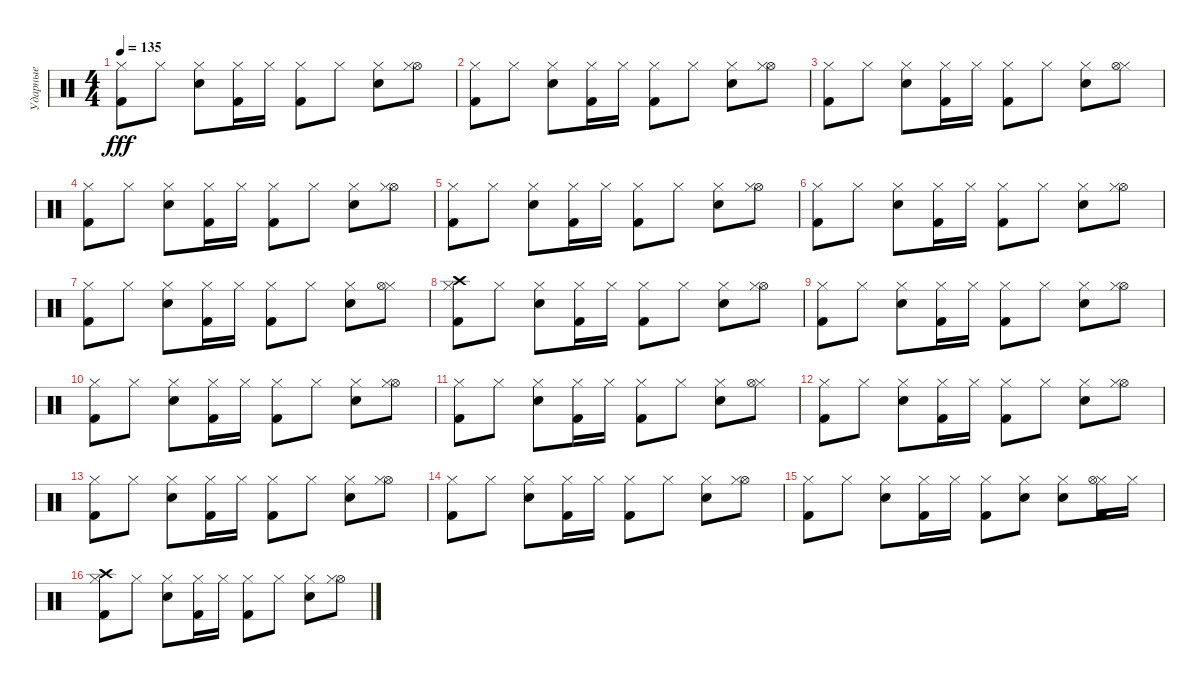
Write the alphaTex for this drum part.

\track ("Ударные" "Ударные") {instrument percussion}
\staff {score}
\articulation defaults
\ts (4 4)
\tempo 135
\clef neutral
\ks c
("Hi-Hat (closed)" "Kick (hit) 2").8{dy fff} "Hi-Hat (closed)".8 ("Hi-Hat (closed)" "Snare (hit) 2").8 ("Kick (hit) 2" "Hi-Hat (closed)").16 "Hi-Hat (closed)".16 ("Hi-Hat (closed)" "Kick (hit) 2").8 "Hi-Hat (closed)".8 ("Hi-Hat (closed)" "Snare (hit) 2").8 ("Hi-Hat (open)" "Hi-Hat (closed)").8 |
("Hi-Hat (closed)" "Kick (hit) 2").8 "Hi-Hat (closed)".8 ("Snare (hit) 2" "Hi-Hat (closed)").8 ("Hi-Hat (closed)" "Kick (hit) 2").16 "Hi-Hat (closed)".16 ("Hi-Hat (closed)" "Kick (hit) 2").8 "Hi-Hat (closed)".8 ("Hi-Hat (closed)" "Snare (hit) 2").8 ("Hi-Hat (open)" "Hi-Hat (closed)").8 |
("Hi-Hat (closed)" "Kick (hit) 2").8 "Hi-Hat (closed)".8 ("Hi-Hat (closed)" "Snare (hit) 2").8 ("Kick (hit) 2" "Hi-Hat (closed)").16 "Hi-Hat (closed)".16 ("Hi-Hat (closed)" "Kick (hit) 2").8 "Hi-Hat (closed)".8 ("Snare (hit) 2" "Hi-Hat (closed)").8 ("Hi-Hat (closed)" "Hi-Hat (open)").8 |
("Hi-Hat (closed)" "Kick (hit) 2").8 "Hi-Hat (closed)".8 ("Hi-Hat (closed)" "Snare (hit) 2").8 ("Hi-Hat (closed)" "Kick (hit) 2").16 "Hi-Hat (closed)".16 ("Hi-Hat (closed)" "Kick (hit) 2").8 "Hi-Hat (closed)".8 ("Snare (hit) 2" "Hi-Hat (closed)").8 ("Hi-Hat (open)" "Hi-Hat (closed)").8 |
("Hi-Hat (closed)" "Kick (hit) 2").8 "Hi-Hat (closed)".8 ("Hi-Hat (closed)" "Snare (hit) 2").8 ("Kick (hit) 2" "Hi-Hat (closed)").16 "Hi-Hat (closed)".16 ("Hi-Hat (closed)" "Kick (hit) 2").8 "Hi-Hat (closed)".8 ("Hi-Hat (closed)" "Snare (hit) 2").8 ("Hi-Hat (open)" "Hi-Hat (closed)").8 |
("Hi-Hat (closed)" "Kick (hit) 2").8 "Hi-Hat (closed)".8 ("Snare (hit) 2" "Hi-Hat (closed)").8 ("Hi-Hat (closed)" "Kick (hit) 2").16 "Hi-Hat (closed)".16 ("Hi-Hat (closed)" "Kick (hit) 2").8 "Hi-Hat (closed)".8 ("Hi-Hat (closed)" "Snare (hit) 2").8 ("Hi-Hat (open)" "Hi-Hat (closed)").8 |
("Hi-Hat (closed)" "Kick (hit) 2").8 "Hi-Hat (closed)".8 ("Hi-Hat (closed)" "Snare (hit) 2").8 ("Kick (hit) 2" "Hi-Hat (closed)").16 "Hi-Hat (closed)".16 ("Hi-Hat (closed)" "Kick (hit) 2").8 "Hi-Hat (closed)".8 ("Snare (hit) 2" "Hi-Hat (closed)").8 ("Hi-Hat (closed)" "Hi-Hat (open)").8 |
("Crash high (hit)" "Hi-Hat (closed)" "Kick (hit) 2").8 "Hi-Hat (closed)".8 ("Hi-Hat (closed)" "Snare (hit) 2").8 ("Hi-Hat (closed)" "Kick (hit) 2").16 "Hi-Hat (closed)".16 ("Hi-Hat (closed)" "Kick (hit) 2").8 "Hi-Hat (closed)".8 ("Snare (hit) 2" "Hi-Hat (closed)").8 ("Hi-Hat (open)" "Hi-Hat (closed)").8 |
("Hi-Hat (closed)" "Kick (hit) 2").8 "Hi-Hat (closed)".8 ("Hi-Hat (closed)" "Snare (hit) 2").8 ("Kick (hit) 2" "Hi-Hat (closed)").16 "Hi-Hat (closed)".16 ("Hi-Hat (closed)" "Kick (hit) 2").8 "Hi-Hat (closed)".8 ("Hi-Hat (closed)" "Snare (hit) 2").8 ("Hi-Hat (open)" "Hi-Hat (closed)").8 |
("Hi-Hat (closed)" "Kick (hit) 2").8 "Hi-Hat (closed)".8 ("Snare (hit) 2" "Hi-Hat (closed)").8 ("Hi-Hat (closed)" "Kick (hit) 2").16 "Hi-Hat (closed)".16 ("Hi-Hat (closed)" "Kick (hit) 2").8 "Hi-Hat (closed)".8 ("Hi-Hat (closed)" "Snare (hit) 2").8 ("Hi-Hat (open)" "Hi-Hat (closed)").8 |
("Hi-Hat (closed)" "Kick (hit) 2").8 "Hi-Hat (closed)".8 ("Hi-Hat (closed)" "Snare (hit) 2").8 ("Kick (hit) 2" "Hi-Hat (closed)").16 "Hi-Hat (closed)".16 ("Hi-Hat (closed)" "Kick (hit) 2").8 "Hi-Hat (closed)".8 ("Snare (hit) 2" "Hi-Hat (closed)").8 ("Hi-Hat (closed)" "Hi-Hat (open)").8 |
("Hi-Hat (closed)" "Kick (hit) 2").8 "Hi-Hat (closed)".8 ("Hi-Hat (closed)" "Snare (hit) 2").8 ("Hi-Hat (closed)" "Kick (hit) 2").16 "Hi-Hat (closed)".16 ("Hi-Hat (closed)" "Kick (hit) 2").8 "Hi-Hat (closed)".8 ("Snare (hit) 2" "Hi-Hat (closed)").8 ("Hi-Hat (open)" "Hi-Hat (closed)").8 |
("Hi-Hat (closed)" "Kick (hit) 2").8 "Hi-Hat (closed)".8 ("Hi-Hat (closed)" "Snare (hit) 2").8 ("Kick (hit) 2" "Hi-Hat (closed)").16 "Hi-Hat (closed)".16 ("Hi-Hat (closed)" "Kick (hit) 2").8 "Hi-Hat (closed)".8 ("Hi-Hat (closed)" "Snare (hit) 2").8 ("Hi-Hat (open)" "Hi-Hat (closed)").8 |
("Hi-Hat (closed)" "Kick (hit) 2").8 "Hi-Hat (closed)".8 ("Snare (hit) 2" "Hi-Hat (closed)").8 ("Hi-Hat (closed)" "Kick (hit) 2").16 "Hi-Hat (closed)".16 ("Hi-Hat (closed)" "Kick (hit) 2").8 "Hi-Hat (closed)".8 ("Hi-Hat (closed)" "Snare (hit) 2").8 ("Hi-Hat (open)" "Hi-Hat (closed)").8 |
("Hi-Hat (closed)" "Kick (hit) 2").8 "Hi-Hat (closed)".8 ("Hi-Hat (closed)" "Snare (hit) 2").8 ("Kick (hit) 2" "Hi-Hat (closed)").16 "Hi-Hat (closed)".16 ("Hi-Hat (closed)" "Kick (hit) 2").8 ("Hi-Hat (closed)" "Snare (hit) 2").8 ("Snare (hit) 2" "Hi-Hat (closed)").8 ("Hi-Hat (closed)" "Hi-Hat (open)" "Kick (hit) 2").16 "Hi-Hat (closed)".16 |
("Crash high (hit)" "Hi-Hat (closed)" "Kick (hit) 2").8 "Hi-Hat (closed)".8 ("Hi-Hat (closed)" "Snare (hit) 2").8 ("Hi-Hat (closed)" "Kick (hit) 2").16 "Hi-Hat (closed)".16 ("Hi-Hat (closed)" "Kick (hit) 2").8 "Hi-Hat (closed)".8 ("Snare (hit) 2" "Hi-Hat (closed)").8 ("Hi-Hat (open)" "Hi-Hat (closed)").8
